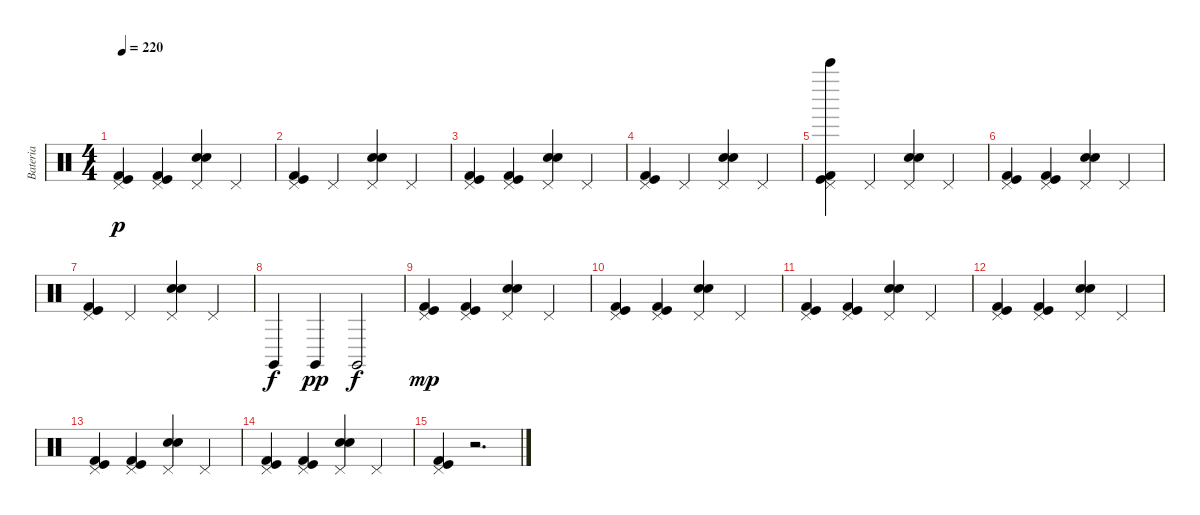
\track ("Bateria" "Bateria") {instrument percussion}
\staff {score}
\articulation defaults
\ts (4 4)
\tempo 220
\clef neutral
\ks c
("Pedal Hi-Hat (hit)" "Kick (hit) 2" "Kick (hit)").4{dy p} ("Pedal Hi-Hat (hit)" "Kick (hit) 2" "Kick (hit)").4 ("Pedal Hi-Hat (hit)" "Electric Snare (hit)" "Snare (hit) 2").4 "Pedal Hi-Hat (hit)".4 |
("Pedal Hi-Hat (hit)" "Kick (hit) 2" "Kick (hit)").4 "Pedal Hi-Hat (hit)".4 ("Pedal Hi-Hat (hit)" "Electric Snare (hit)" "Snare (hit) 2").4 "Pedal Hi-Hat (hit)".4 |
("Pedal Hi-Hat (hit)" "Kick (hit) 2" "Kick (hit)").4 ("Pedal Hi-Hat (hit)" "Kick (hit) 2" "Kick (hit)").4 ("Pedal Hi-Hat (hit)" "Electric Snare (hit)" "Snare (hit) 2").4 "Pedal Hi-Hat (hit)".4 |
("Pedal Hi-Hat (hit)" "Kick (hit) 2" "Kick (hit)").4 "Pedal Hi-Hat (hit)".4 ("Pedal Hi-Hat (hit)" "Electric Snare (hit)" "Snare (hit) 2").4 "Pedal Hi-Hat (hit)".4 |
("Bell Tree (hit)" "Pedal Hi-Hat (hit)" "Kick (hit) 2" "Kick (hit)").4 "Pedal Hi-Hat (hit)".4 ("Pedal Hi-Hat (hit)" "Electric Snare (hit)" "Snare (hit) 2").4 "Pedal Hi-Hat (hit)".4 |
("Pedal Hi-Hat (hit)" "Kick (hit) 2" "Kick (hit)").4 ("Pedal Hi-Hat (hit)" "Kick (hit) 2" "Kick (hit)").4 ("Pedal Hi-Hat (hit)" "Electric Snare (hit)" "Snare (hit) 2").4 "Pedal Hi-Hat (hit)".4 |
("Pedal Hi-Hat (hit)" "Kick (hit) 2" "Kick (hit)").4 "Pedal Hi-Hat (hit)".4 ("Pedal Hi-Hat (hit)" "Electric Snare (hit)" "Snare (hit) 2").4 "Pedal Hi-Hat (hit)".4 |
"Claves (hit)".4{dy f} "Claves (hit)".4{dy pp} "Claves (hit)".2{dy f} |
("Pedal Hi-Hat (hit)" "Kick (hit) 2" "Kick (hit)").4{dy mp} ("Pedal Hi-Hat (hit)" "Kick (hit) 2" "Kick (hit)").4 ("Pedal Hi-Hat (hit)" "Snare (hit) 2" "Electric Snare (hit)").4 "Pedal Hi-Hat (hit)".4 |
("Pedal Hi-Hat (hit)" "Kick (hit) 2" "Kick (hit)").4 ("Pedal Hi-Hat (hit)" "Kick (hit) 2" "Kick (hit)").4 ("Pedal Hi-Hat (hit)" "Snare (hit) 2" "Electric Snare (hit)").4 "Pedal Hi-Hat (hit)".4 |
("Pedal Hi-Hat (hit)" "Kick (hit) 2" "Kick (hit)").4 ("Pedal Hi-Hat (hit)" "Kick (hit) 2" "Kick (hit)").4 ("Pedal Hi-Hat (hit)" "Snare (hit) 2" "Electric Snare (hit)").4 "Pedal Hi-Hat (hit)".4 |
("Pedal Hi-Hat (hit)" "Kick (hit) 2" "Kick (hit)").4 ("Pedal Hi-Hat (hit)" "Kick (hit) 2" "Kick (hit)").4 ("Pedal Hi-Hat (hit)" "Snare (hit) 2" "Electric Snare (hit)").4 "Pedal Hi-Hat (hit)".4 |
("Pedal Hi-Hat (hit)" "Kick (hit) 2" "Kick (hit)").4 ("Pedal Hi-Hat (hit)" "Kick (hit) 2" "Kick (hit)").4 ("Pedal Hi-Hat (hit)" "Snare (hit) 2" "Electric Snare (hit)").4 "Pedal Hi-Hat (hit)".4 |
("Pedal Hi-Hat (hit)" "Kick (hit) 2" "Kick (hit)").4 ("Pedal Hi-Hat (hit)" "Kick (hit) 2" "Kick (hit)").4 ("Pedal Hi-Hat (hit)" "Snare (hit) 2" "Electric Snare (hit)").4 "Pedal Hi-Hat (hit)".4 |
("Pedal Hi-Hat (hit)" "Kick (hit) 2" "Kick (hit)").4 r.2{d}
